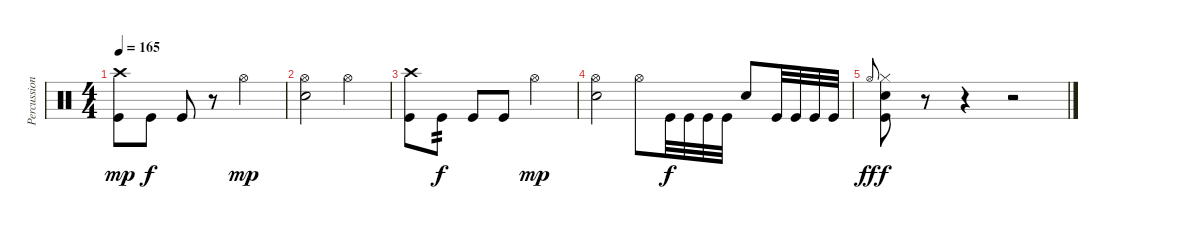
\track ("Percussion" "Percussion") {instrument percussion}
\staff {score}
\articulation defaults
\ts (4 4)
\tempo 165
\clef neutral
\ks c
("Crash high (hit)" "Kick (hit)").8{dy mp} "Kick (hit)".8{dy f} "Kick (hit)".8 r.8 "Hi-Hat (open)".2{dy mp} |
("Hi-Hat (open)" "Electric Snare (hit)").2 "Hi-Hat (open)".2 |
("Crash high (hit)" "Kick (hit)").8 "Kick (hit)".8{tp 2 dy f} "Kick (hit)".8 "Kick (hit)".8 "Hi-Hat (open)".2{dy mp} |
("Hi-Hat (open)" "Electric Snare (hit)").2 "Hi-Hat (open)".8 "Kick (hit)".32{dy f} "Kick (hit)".32 "Kick (hit)".32 "Kick (hit)".32 "Electric Snare (hit)".8 "Kick (hit)".32 "Kick (hit)".32 "Kick (hit)".32 "Kick (hit)".32 |
"Hi-Hat (open)".8{gr onbeat dy ff} ("Hi-Hat (closed)" "Electric Snare (hit)" "Kick (hit)").8{dy f} r.8 r.4 r.2
